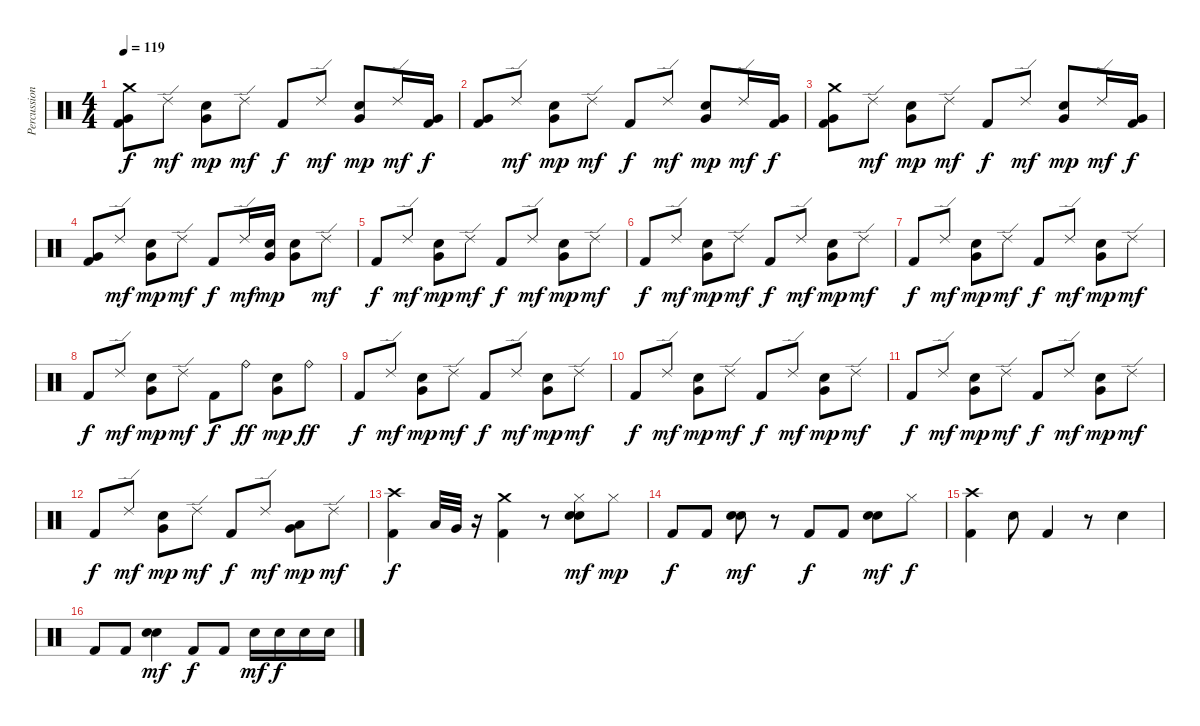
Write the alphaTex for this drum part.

\track ("Percussion" "Percussion") {instrument percussion}
\staff {score}
\articulation defaults
\ts (4 4)
\tempo 119
\clef neutral
\ks c
("Crash medium (hit)" "Very Low Tom (hit)" "Kick (hit) 2").8{dy f} "Ride (edge) 2".8{dy mf} ("Very Low Tom (hit)" "Snare (hit) 2").8{dy mp} "Ride (edge) 2".8{dy mf} "Kick (hit) 2".8{dy f} "Ride (edge) 2".8{dy mf} ("Very Low Tom (hit)" "Snare (hit) 2").8{dy mp} "Ride (edge) 2".16{dy mf} ("Very Low Tom (hit)" "Kick (hit) 2").16{dy f} |
("Very Low Tom (hit)" "Kick (hit) 2").8 "Ride (edge) 2".8{dy mf} ("Very Low Tom (hit)" "Snare (hit) 2").8{dy mp} "Ride (edge) 2".8{dy mf} "Kick (hit) 2".8{dy f} "Ride (edge) 2".8{dy mf} ("Very Low Tom (hit)" "Snare (hit) 2").8{dy mp} "Ride (edge) 2".16{dy mf} ("Very Low Tom (hit)" "Kick (hit) 2").16{dy f} |
("Crash medium (hit)" "Very Low Tom (hit)" "Kick (hit) 2").8 "Ride (edge) 2".8{dy mf} ("Very Low Tom (hit)" "Snare (hit) 2").8{dy mp} "Ride (edge) 2".8{dy mf} "Kick (hit) 2".8{dy f} "Ride (edge) 2".8{dy mf} ("Very Low Tom (hit)" "Snare (hit) 2").8{dy mp} "Ride (edge) 2".16{dy mf} ("Very Low Tom (hit)" "Kick (hit) 2").16{dy f} |
("Very Low Tom (hit)" "Kick (hit) 2").8 "Ride (edge) 2".8{dy mf} ("Very Low Tom (hit)" "Snare (hit) 2").8{dy mp} "Ride (edge) 2".8{dy mf} "Kick (hit) 2".8{dy f} "Ride (edge) 2".16{dy mf} ("Very Low Tom (hit)" "Snare (hit) 2").16{dy mp} ("Very Low Tom (hit)" "Snare (hit) 2").8 "Ride (edge) 2".8{dy mf} |
"Kick (hit) 2".8{dy f} "Ride (edge) 2".8{dy mf} ("Very Low Tom (hit)" "Snare (hit) 2").8{dy mp} "Ride (edge) 2".8{dy mf} "Kick (hit) 2".8{dy f} "Ride (edge) 2".8{dy mf} ("Very Low Tom (hit)" "Snare (hit) 2").8{dy mp} "Ride (edge) 2".8{dy mf} |
"Kick (hit) 2".8{dy f} "Ride (edge) 2".8{dy mf} ("Very Low Tom (hit)" "Snare (hit) 2").8{dy mp} "Ride (edge) 2".8{dy mf} "Kick (hit) 2".8{dy f} "Ride (edge) 2".8{dy mf} ("Very Low Tom (hit)" "Snare (hit) 2").8{dy mp} "Ride (edge) 2".8{dy mf} |
"Kick (hit) 2".8{dy f} "Ride (edge) 2".8{dy mf} ("Very Low Tom (hit)" "Snare (hit) 2").8{dy mp} "Ride (edge) 2".8{dy mf} "Kick (hit) 2".8{dy f} "Ride (edge) 2".8{dy mf} ("Very Low Tom (hit)" "Snare (hit) 2").8{dy mp} "Ride (edge) 2".8{dy mf} |
"Kick (hit) 2".8{dy f} "Ride (edge) 2".8{dy mf} ("Very Low Tom (hit)" "Snare (hit) 2").8{dy mp} "Ride (edge) 2".8{dy mf} "Kick (hit) 2".8{dy f} "Ride (bell)".8{dy ff} ("Very Low Tom (hit)" "Snare (hit) 2").8{dy mp} "Ride (bell)".8{dy ff} |
"Kick (hit) 2".8{dy f} "Ride (edge) 2".8{dy mf} ("Very Low Tom (hit)" "Snare (hit) 2").8{dy mp} "Ride (edge) 2".8{dy mf} "Kick (hit) 2".8{dy f} "Ride (edge) 2".8{dy mf} ("Very Low Tom (hit)" "Snare (hit) 2").8{dy mp} "Ride (edge) 2".8{dy mf} |
"Kick (hit) 2".8{dy f} "Ride (edge) 2".8{dy mf} ("Very Low Tom (hit)" "Snare (hit) 2").8{dy mp} "Ride (edge) 2".8{dy mf} "Kick (hit) 2".8{dy f} "Ride (edge) 2".8{dy mf} ("Very Low Tom (hit)" "Snare (hit) 2").8{dy mp} "Ride (edge) 2".8{dy mf} |
"Kick (hit) 2".8{dy f} "Ride (edge) 2".8{dy mf} ("Very Low Tom (hit)" "Snare (hit) 2").8{dy mp} "Ride (edge) 2".8{dy mf} "Kick (hit) 2".8{dy f} "Ride (edge) 2".8{dy mf} ("Very Low Tom (hit)" "Snare (hit) 2").8{dy mp} "Ride (edge) 2".8{dy mf} |
"Kick (hit) 2".8{dy f} "Ride (edge) 2".8{dy mf} ("Very Low Tom (hit)" "Snare (hit) 2").8{dy mp} "Ride (edge) 2".8{dy mf} "Kick (hit) 2".8{dy f} "Ride (edge) 2".8{dy mf} ("Very Low Tom (hit)" "Low Floor Tom (hit)").8{dy mp} "Ride (edge) 2".8{dy mf} |
("Crash high (hit)" "Kick (hit) 2").4{dy f} "Low Tom (hit)".32 "Very Low Tom (hit)".32 r.16 ("Crash medium (hit)" "Kick (hit) 2").4 r.8 ("Hi-Hat (closed)" "Electric Snare (hit)" "Snare (hit) 2").8{dy mf} "Hi-Hat (closed)".8{dy mp} |
"Kick (hit) 2".8{dy f} "Kick (hit) 2".8 ("Electric Snare (hit)" "Snare (hit) 2").8{dy mf} r.8 "Kick (hit) 2".8{dy f} "Kick (hit) 2".8 ("Electric Snare (hit)" "Snare (hit) 2").8{dy mf} "Hi-Hat (closed)".8{dy f} |
("Crash high (hit)" "Kick (hit) 2").4 "Snare (hit) 2".8 "Kick (hit) 2".4 r.8 "Snare (hit) 2".4 |
"Kick (hit) 2".8 "Kick (hit) 2".8 ("Electric Snare (hit)" "Snare (hit) 2").4{dy mf} "Kick (hit) 2".8{dy f} "Kick (hit) 2".8 "Snare (hit) 2".16{dy mf} "Snare (hit) 2".16{dy f} "Snare (hit) 2".16 "Snare (hit) 2".16
